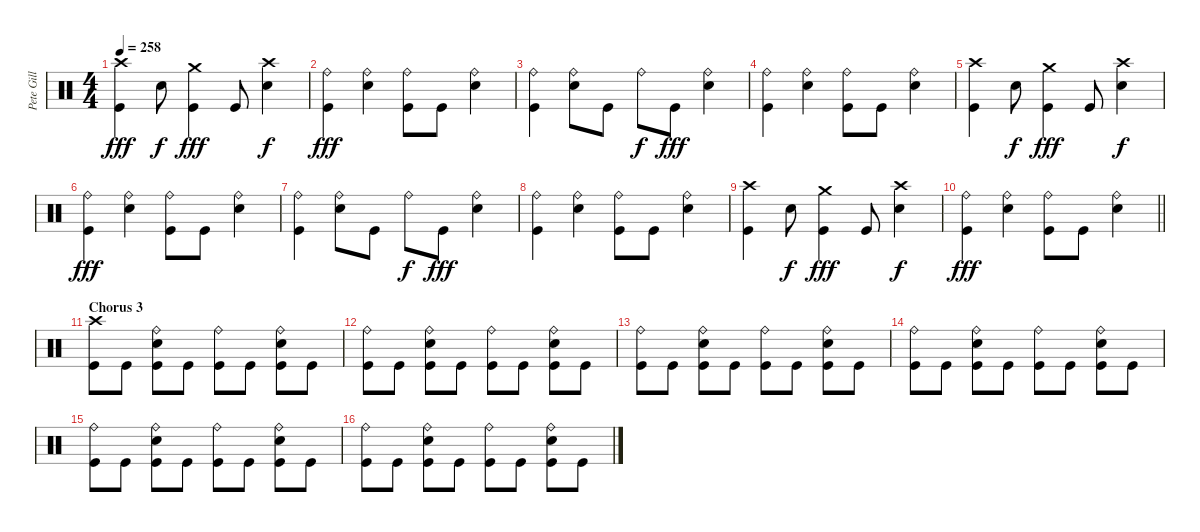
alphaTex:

\track ("Pete Gill" "Pete Gill") {instrument percussion}
\staff {score}
\articulation defaults
\ts (4 4)
\tempo 258
\clef neutral
\ks c
("Crash high (hit)" "Kick (hit)").4{dy fff} "Electric Snare (hit)".8{dy f} ("Crash medium (hit)" "Kick (hit)").4{dy fff} "Kick (hit)".8 ("Crash high (hit)" "Electric Snare (hit)").4{dy f} |
("Ride (bell)" "Kick (hit)").4{dy fff} ("Ride (bell)" "Electric Snare (hit)").4 ("Ride (bell)" "Kick (hit)").8 "Kick (hit)".8 ("Ride (bell)" "Electric Snare (hit)").4 |
("Ride (bell)" "Kick (hit)").4 ("Ride (bell)" "Electric Snare (hit)").8 "Kick (hit)".8 "Ride (bell)".8{dy f} "Kick (hit)".8{dy fff} ("Ride (bell)" "Electric Snare (hit)").4 |
("Ride (bell)" "Kick (hit)").4 ("Ride (bell)" "Electric Snare (hit)").4 ("Ride (bell)" "Kick (hit)").8 "Kick (hit)".8 ("Ride (bell)" "Electric Snare (hit)").4 |
("Crash high (hit)" "Kick (hit)").4 "Electric Snare (hit)".8{dy f} ("Crash medium (hit)" "Kick (hit)").4{dy fff} "Kick (hit)".8 ("Crash high (hit)" "Electric Snare (hit)").4{dy f} |
("Ride (bell)" "Kick (hit)").4{dy fff} ("Ride (bell)" "Electric Snare (hit)").4 ("Ride (bell)" "Kick (hit)").8 "Kick (hit)".8 ("Ride (bell)" "Electric Snare (hit)").4 |
("Ride (bell)" "Kick (hit)").4 ("Ride (bell)" "Electric Snare (hit)").8 "Kick (hit)".8 "Ride (bell)".8{dy f} "Kick (hit)".8{dy fff} ("Ride (bell)" "Electric Snare (hit)").4 |
("Ride (bell)" "Kick (hit)").4 ("Ride (bell)" "Electric Snare (hit)").4 ("Ride (bell)" "Kick (hit)").8 "Kick (hit)".8 ("Ride (bell)" "Electric Snare (hit)").4 |
("Crash high (hit)" "Kick (hit)").4 "Electric Snare (hit)".8{dy f} ("Crash medium (hit)" "Kick (hit)").4{dy fff} "Kick (hit)".8 ("Crash high (hit)" "Electric Snare (hit)").4{dy f} |
\barLineRight lightlight
("Ride (bell)" "Kick (hit)").4{dy fff} ("Ride (bell)" "Electric Snare (hit)").4 ("Ride (bell)" "Kick (hit)").8 "Kick (hit)".8 ("Ride (bell)" "Electric Snare (hit)").4 |
\section ("" "Chorus 3")
("Crash high (hit)" "Kick (hit)").8 "Kick (hit)".8 ("Ride (bell)" "Electric Snare (hit)" "Kick (hit)").8 "Kick (hit)".8 ("Ride (bell)" "Kick (hit)").8 "Kick (hit)".8 ("Ride (bell)" "Electric Snare (hit)" "Kick (hit)").8 "Kick (hit)".8 |
("Ride (bell)" "Kick (hit)").8 "Kick (hit)".8 ("Ride (bell)" "Electric Snare (hit)" "Kick (hit)").8 "Kick (hit)".8 ("Ride (bell)" "Kick (hit)").8 "Kick (hit)".8 ("Ride (bell)" "Electric Snare (hit)" "Kick (hit)").8 "Kick (hit)".8 |
("Ride (bell)" "Kick (hit)").8 "Kick (hit)".8 ("Ride (bell)" "Electric Snare (hit)" "Kick (hit)").8 "Kick (hit)".8 ("Ride (bell)" "Kick (hit)").8 "Kick (hit)".8 ("Ride (bell)" "Electric Snare (hit)" "Kick (hit)").8 "Kick (hit)".8 |
("Ride (bell)" "Kick (hit)").8 "Kick (hit)".8 ("Ride (bell)" "Electric Snare (hit)" "Kick (hit)").8 "Kick (hit)".8 ("Ride (bell)" "Kick (hit)").8 "Kick (hit)".8 ("Ride (bell)" "Electric Snare (hit)" "Kick (hit)").8 "Kick (hit)".8 |
("Ride (bell)" "Kick (hit)").8 "Kick (hit)".8 ("Ride (bell)" "Electric Snare (hit)" "Kick (hit)").8 "Kick (hit)".8 ("Ride (bell)" "Kick (hit)").8 "Kick (hit)".8 ("Ride (bell)" "Electric Snare (hit)" "Kick (hit)").8 "Kick (hit)".8 |
("Ride (bell)" "Kick (hit)").8 "Kick (hit)".8 ("Ride (bell)" "Electric Snare (hit)" "Kick (hit)").8 "Kick (hit)".8 ("Ride (bell)" "Kick (hit)").8 "Kick (hit)".8 ("Ride (bell)" "Electric Snare (hit)" "Kick (hit)").8 "Kick (hit)".8
